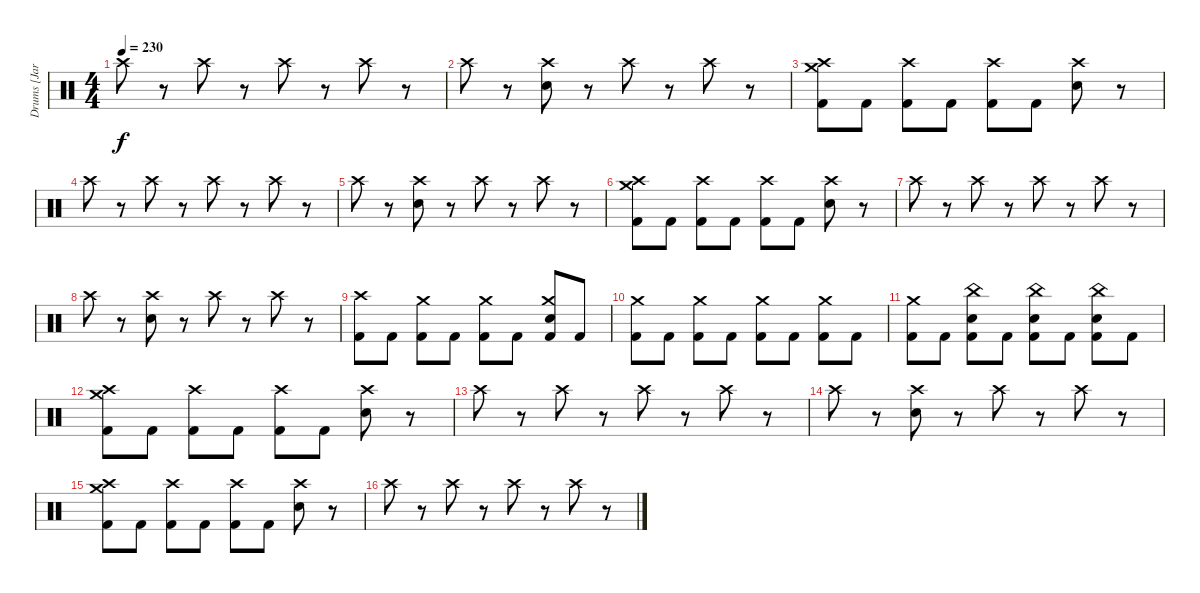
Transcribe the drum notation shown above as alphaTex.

\track ("Drums [Jared]" "Drums [Jar") {instrument percussion}
\staff {score}
\articulation defaults
\ts (4 4)
\tempo 230
\clef neutral
\ks c "Crash high (hit)".8{dy f}
r.8 "Crash high (hit)".8 r.8 "Crash high (hit)".8 r.8 "Crash high (hit)".8 r.8 |
"Crash high (hit)".8 r.8 ("Crash high (hit)" "Electric Snare (hit)").8 r.8 "Crash high (hit)".8 r.8 "Crash high (hit)".8 r.8 |
("Crash medium (hit)" "Crash high (hit)" "Kick (hit) 2").8 "Kick (hit) 2".8 ("Crash high (hit)" "Kick (hit) 2").8 "Kick (hit) 2".8 ("Crash high (hit)" "Kick (hit) 2").8 "Kick (hit) 2".8 ("Crash high (hit)" "Electric Snare (hit)").8 r.8 |
"Crash high (hit)".8 r.8 "Crash high (hit)".8 r.8 "Crash high (hit)".8 r.8 "Crash high (hit)".8 r.8 |
"Crash high (hit)".8 r.8 ("Crash high (hit)" "Electric Snare (hit)").8 r.8 "Crash high (hit)".8 r.8 "Crash high (hit)".8 r.8 |
("Crash medium (hit)" "Crash high (hit)" "Kick (hit) 2").8 "Kick (hit) 2".8 ("Crash high (hit)" "Kick (hit) 2").8 "Kick (hit) 2".8 ("Crash high (hit)" "Kick (hit) 2").8 "Kick (hit) 2".8 ("Crash high (hit)" "Electric Snare (hit)").8 r.8 |
"Crash high (hit)".8 r.8 "Crash high (hit)".8 r.8 "Crash high (hit)".8 r.8 "Crash high (hit)".8 r.8 |
"Crash high (hit)".8 r.8 ("Crash high (hit)" "Electric Snare (hit)").8 r.8 "Crash high (hit)".8 r.8 "Crash high (hit)".8 r.8 |
("Crash high (hit)" "Kick (hit) 2").8 "Kick (hit) 2".8 ("Crash medium (hit)" "Kick (hit) 2").8 "Kick (hit) 2".8 ("Crash medium (hit)" "Kick (hit) 2").8 "Kick (hit) 2".8 ("Crash medium (hit)" "Electric Snare (hit)" "Kick (hit) 2").8 "Kick (hit) 2".8 |
("Crash medium (hit)" "Kick (hit) 2").8 "Kick (hit) 2".8 ("Crash medium (hit)" "Kick (hit) 2").8 "Kick (hit) 2".8 ("Crash medium (hit)" "Kick (hit) 2").8 "Kick (hit) 2".8 ("Crash medium (hit)" "Kick (hit) 2").8 "Kick (hit) 2".8 |
("Crash medium (hit)" "Kick (hit) 2").8 "Kick (hit) 2".8 ("China (hit)" "Electric Snare (hit)" "Kick (hit) 2").8 "Kick (hit) 2".8 ("China (hit)" "Electric Snare (hit)" "Kick (hit) 2").8 "Kick (hit) 2".8 ("China (hit)" "Electric Snare (hit)" "Kick (hit) 2").8 "Kick (hit) 2".8 |
("Crash medium (hit)" "Crash high (hit)" "Kick (hit) 2").8 "Kick (hit) 2".8 ("Crash high (hit)" "Kick (hit) 2").8 "Kick (hit) 2".8 ("Crash high (hit)" "Kick (hit) 2").8 "Kick (hit) 2".8 ("Crash high (hit)" "Electric Snare (hit)").8 r.8 |
"Crash high (hit)".8 r.8 "Crash high (hit)".8 r.8 "Crash high (hit)".8 r.8 "Crash high (hit)".8 r.8 |
"Crash high (hit)".8 r.8 ("Crash high (hit)" "Electric Snare (hit)").8 r.8 "Crash high (hit)".8 r.8 "Crash high (hit)".8 r.8 |
("Crash medium (hit)" "Crash high (hit)" "Kick (hit) 2").8 "Kick (hit) 2".8 ("Crash high (hit)" "Kick (hit) 2").8 "Kick (hit) 2".8 ("Crash high (hit)" "Kick (hit) 2").8 "Kick (hit) 2".8 ("Crash high (hit)" "Electric Snare (hit)").8 r.8 |
"Crash high (hit)".8 r.8 "Crash high (hit)".8 r.8 "Crash high (hit)".8 r.8 "Crash high (hit)".8 r.8
